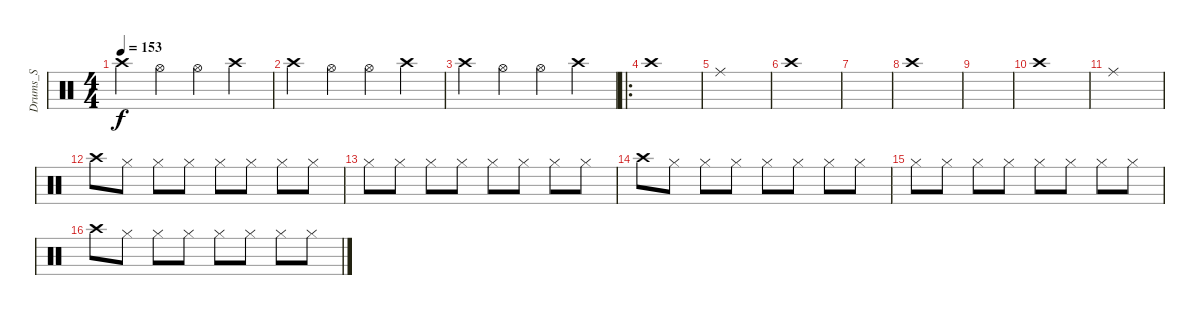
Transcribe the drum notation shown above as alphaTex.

\track ("Drums_S" "Drums_S") {instrument percussion}
\staff {score}
\articulation defaults
\ts (4 4)
\tempo 153
\clef neutral
\ks c "Crash high (hit)".4{dy f} "Hi-Hat (open)".4 "Hi-Hat (open)".4 "Crash high (hit)".4
|
"Crash high (hit)".4 "Hi-Hat (open)".4 "Hi-Hat (open)".4 "Crash high (hit)".4 |
"Crash high (hit)".4 "Hi-Hat (open)".4 "Hi-Hat (open)".4 "Crash high (hit)".4 |
\ro "Crash high (hit)".1
|
"Ride (middle)".1 |
"Crash high (hit)".1 |
|
"Crash high (hit)".1 |
|
"Crash high (hit)".1 |
"Ride (middle)".1 |
"Crash high (hit)".8 "Hi-Hat (closed)".8 "Hi-Hat (closed)".8 "Hi-Hat (closed)".8 "Hi-Hat (closed)".8 "Hi-Hat (closed)".8 "Hi-Hat (closed)".8 "Hi-Hat (closed)".8 |
"Hi-Hat (closed)".8 "Hi-Hat (closed)".8 "Hi-Hat (closed)".8 "Hi-Hat (closed)".8 "Hi-Hat (closed)".8 "Hi-Hat (closed)".8 "Hi-Hat (closed)".8 "Hi-Hat (closed)".8 |
"Crash high (hit)".8 "Hi-Hat (closed)".8 "Hi-Hat (closed)".8 "Hi-Hat (closed)".8 "Hi-Hat (closed)".8 "Hi-Hat (closed)".8 "Hi-Hat (closed)".8 "Hi-Hat (closed)".8 |
"Hi-Hat (closed)".8 "Hi-Hat (closed)".8 "Hi-Hat (closed)".8 "Hi-Hat (closed)".8 "Hi-Hat (closed)".8 "Hi-Hat (closed)".8 "Hi-Hat (closed)".8 "Hi-Hat (closed)".8 |
"Crash high (hit)".8 "Hi-Hat (closed)".8 "Hi-Hat (closed)".8 "Hi-Hat (closed)".8 "Hi-Hat (closed)".8 "Hi-Hat (closed)".8 "Hi-Hat (closed)".8 "Hi-Hat (closed)".8
